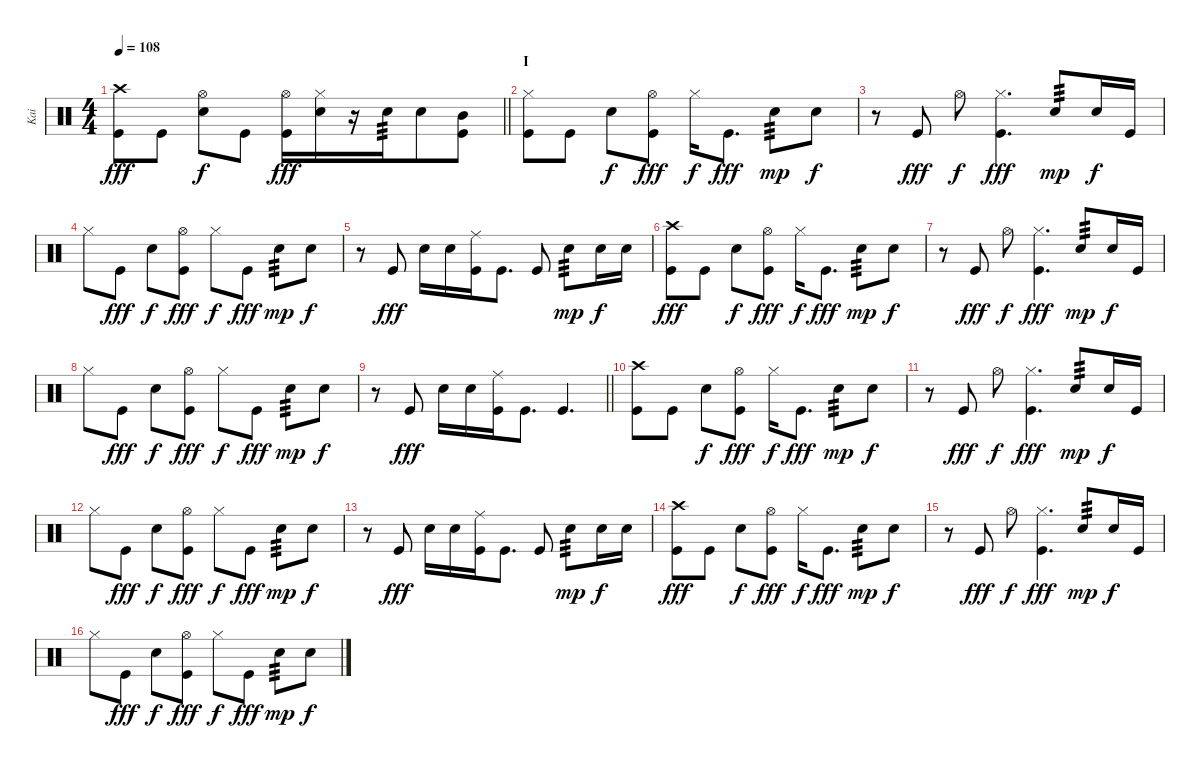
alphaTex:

\track ("Kai" "Kai") {instrument percussion}
\staff {score}
\articulation defaults
\ts (4 4)
\tempo 108
\clef neutral
\barLineRight lightlight
\ks c
("Kick (hit)" "Crash high (hit)").8{dy fff} "Kick (hit)".8 ("Snare (hit) 2" "Hi-Hat (open)").8{dy f} "Kick (hit)".8 ("Kick (hit)" "Hi-Hat (open)").16{dy fff} ("Snare (hit) 2" "Hi-Hat (closed)").16 r.16 "Snare (hit) 2".16{tp 3 beam merge} "Snare (hit) 2".8 ("Mid Tom (hit)" "Kick (hit)").8 |
\section ("" "I")
("Kick (hit)" "Hi-Hat (closed)").8 "Kick (hit)".8 "Snare (hit) 2".8{dy f} ("Hi-Hat (open)" "Kick (hit)").8{dy fff} "Hi-Hat (closed)".16{dy f} "Kick (hit)".8{d dy fff} "Snare (hit) 2".8{tp 3 dy mp} "Snare (hit) 2".8{dy f} |
r.8 "Kick (hit)".8{dy fff} "Hi-Hat (open)".8{dy f} ("Hi-Hat (closed)" "Kick (hit)").4{d dy fff} "Snare (hit) 2".8{tp 3 dy mp} "Snare (hit) 2".16{dy f} "Kick (hit)".16 |
"Hi-Hat (closed)".8 "Kick (hit)".8{dy fff} "Snare (hit) 2".8{dy f} ("Hi-Hat (open)" "Kick (hit)").8{dy fff} "Hi-Hat (closed)".8{dy f} "Kick (hit)".8{dy fff} "Snare (hit) 2".8{tp 3 dy mp} "Snare (hit) 2".8{dy f} |
r.8 "Kick (hit)".8{dy fff} "Snare (hit) 2".16 "Snare (hit) 2".16 ("Kick (hit)" "Ride (middle)").16 "Kick (hit)".8{d} "Kick (hit)".8 "Snare (hit) 2".8{tp 3 dy mp} "Snare (hit) 2".16{dy f} "Snare (hit) 2".16 |
("Kick (hit)" "Crash high (hit)").8{dy fff} "Kick (hit)".8 "Snare (hit) 2".8{dy f} ("Hi-Hat (open)" "Kick (hit)").8{dy fff} "Hi-Hat (closed)".16{dy f} "Kick (hit)".8{d dy fff} "Snare (hit) 2".8{tp 3 dy mp} "Snare (hit) 2".8{dy f} |
r.8 "Kick (hit)".8{dy fff} "Hi-Hat (open)".8{dy f} ("Hi-Hat (closed)" "Kick (hit)").4{d dy fff} "Snare (hit) 2".8{tp 3 dy mp} "Snare (hit) 2".16{dy f} "Kick (hit)".16 |
"Hi-Hat (closed)".8 "Kick (hit)".8{dy fff} "Snare (hit) 2".8{dy f} ("Hi-Hat (open)" "Kick (hit)").8{dy fff} "Hi-Hat (closed)".8{dy f} "Kick (hit)".8{dy fff} "Snare (hit) 2".8{tp 3 dy mp} "Snare (hit) 2".8{dy f} |
\barLineRight lightlight
r.8 "Kick (hit)".8{dy fff} "Snare (hit) 2".16 "Snare (hit) 2".16 ("Kick (hit)" "Ride (middle)").16 "Kick (hit)".8{d} "Kick (hit)".4{d} |
("Kick (hit)" "Crash high (hit)").8 "Kick (hit)".8 "Snare (hit) 2".8{dy f} ("Hi-Hat (open)" "Kick (hit)").8{dy fff} "Hi-Hat (closed)".16{dy f} "Kick (hit)".8{d dy fff} "Snare (hit) 2".8{tp 3 dy mp} "Snare (hit) 2".8{dy f} |
r.8 "Kick (hit)".8{dy fff} "Hi-Hat (open)".8{dy f} ("Hi-Hat (closed)" "Kick (hit)").4{d dy fff} "Snare (hit) 2".8{tp 3 dy mp} "Snare (hit) 2".16{dy f} "Kick (hit)".16 |
"Hi-Hat (closed)".8 "Kick (hit)".8{dy fff} "Snare (hit) 2".8{dy f} ("Hi-Hat (open)" "Kick (hit)").8{dy fff} "Hi-Hat (closed)".8{dy f} "Kick (hit)".8{dy fff} "Snare (hit) 2".8{tp 3 dy mp} "Snare (hit) 2".8{dy f} |
r.8 "Kick (hit)".8{dy fff} "Snare (hit) 2".16 "Snare (hit) 2".16 ("Kick (hit)" "Ride (middle)").16 "Kick (hit)".8{d} "Kick (hit)".8 "Snare (hit) 2".8{tp 3 dy mp} "Snare (hit) 2".16{dy f} "Snare (hit) 2".16 |
("Kick (hit)" "Crash high (hit)").8{dy fff} "Kick (hit)".8 "Snare (hit) 2".8{dy f} ("Hi-Hat (open)" "Kick (hit)").8{dy fff} "Hi-Hat (closed)".16{dy f} "Kick (hit)".8{d dy fff} "Snare (hit) 2".8{tp 3 dy mp} "Snare (hit) 2".8{dy f} |
r.8 "Kick (hit)".8{dy fff} "Hi-Hat (open)".8{dy f} ("Hi-Hat (closed)" "Kick (hit)").4{d dy fff} "Snare (hit) 2".8{tp 3 dy mp} "Snare (hit) 2".16{dy f} "Kick (hit)".16 |
"Hi-Hat (closed)".8 "Kick (hit)".8{dy fff} "Snare (hit) 2".8{dy f} ("Hi-Hat (open)" "Kick (hit)").8{dy fff} "Hi-Hat (closed)".8{dy f} "Kick (hit)".8{dy fff} "Snare (hit) 2".8{tp 3 dy mp} "Snare (hit) 2".8{dy f}
